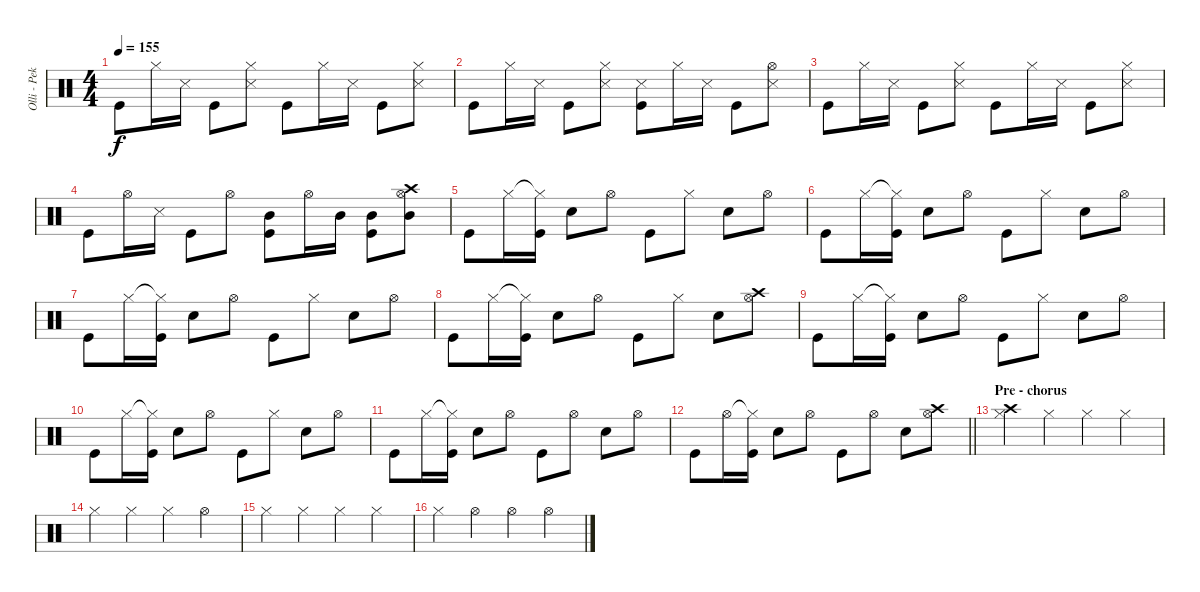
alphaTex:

\track ("Olli - Pekka" "Olli - Pek") {instrument percussion}
\staff {score}
\articulation defaults
\ts (4 4)
\tempo 155
\clef neutral
\ks c "Kick (hit)".8{dy f} "Hi-Hat (closed)".16 "Snare (side stick) 3".16 "Kick (hit)".8
("Hi-Hat (closed)" "Snare (side stick) 3").8 "Kick (hit)".8 "Hi-Hat (closed)".16 "Snare (side stick) 3".16 "Kick (hit)".8 ("Hi-Hat (closed)" "Snare (side stick) 3").8 |
"Kick (hit)".8 "Hi-Hat (closed)".16 "Snare (side stick) 3".16 "Kick (hit)".8 ("Hi-Hat (closed)" "Snare (side stick) 3").8 ("Snare (side stick) 3" "Kick (hit)").8 "Hi-Hat (closed)".16 "Snare (side stick) 3".16 "Kick (hit)".8 ("Hi-Hat (open)" "Snare (side stick) 3").8 |
"Kick (hit)".8 "Hi-Hat (closed)".16 "Snare (side stick) 3".16 "Kick (hit)".8 ("Hi-Hat (closed)" "Snare (side stick) 3").8 "Kick (hit)".8 "Hi-Hat (closed)".16 "Snare (side stick) 3".16 "Kick (hit)".8 ("Hi-Hat (closed)" "Snare (side stick) 3").8 |
"Kick (hit)".8 "Hi-Hat (open)".16 "Snare (side stick) 3".16 "Kick (hit)".8 "Hi-Hat (open)".8 ("Mid Tom (hit)" "Kick (hit)").8 "Hi-Hat (open)".16 "Mid Tom (hit)".16 ("Mid Tom (hit)" "Kick (hit)").8 ("Crash high (hit)" "Hi-Hat (open)" "Mid Tom (hit)").8 |
"Kick (hit)".8 "Hi-Hat (closed)".16 ("Hi-Hat (closed)"{t} "Kick (hit)").16 "Snare (hit) 2".8 "Hi-Hat (open)".8 "Kick (hit)".8 "Hi-Hat (closed)".8 "Snare (hit) 2".8 "Hi-Hat (open)".8 |
"Kick (hit)".8 "Hi-Hat (closed)".16 ("Hi-Hat (closed)"{t} "Kick (hit)").16 "Snare (hit) 2".8 "Hi-Hat (open)".8 "Kick (hit)".8 "Hi-Hat (closed)".8 "Snare (hit) 2".8 "Hi-Hat (open)".8 |
"Kick (hit)".8 "Hi-Hat (closed)".16 ("Hi-Hat (closed)"{t} "Kick (hit)").16 "Snare (hit) 2".8 "Hi-Hat (open)".8 "Kick (hit)".8 "Hi-Hat (closed)".8 "Snare (hit) 2".8 "Hi-Hat (open)".8 |
"Kick (hit)".8 "Hi-Hat (closed)".16 ("Hi-Hat (closed)"{t} "Kick (hit)").16 "Snare (hit) 2".8 "Hi-Hat (open)".8 "Kick (hit)".8 "Hi-Hat (closed)".8 "Snare (hit) 2".8 ("Crash high (hit)" "Hi-Hat (open)").8 |
"Kick (hit)".8 "Hi-Hat (closed)".16 ("Hi-Hat (closed)"{t} "Kick (hit)").16 "Snare (hit) 2".8 "Hi-Hat (open)".8 "Kick (hit)".8 "Hi-Hat (closed)".8 "Snare (hit) 2".8 "Hi-Hat (open)".8 |
"Kick (hit)".8 "Hi-Hat (closed)".16 ("Hi-Hat (closed)"{t} "Kick (hit)").16 "Snare (hit) 2".8 "Hi-Hat (open)".8 "Kick (hit)".8 "Hi-Hat (closed)".8 "Snare (hit) 2".8 "Hi-Hat (open)".8 |
"Kick (hit)".8 "Hi-Hat (closed)".16 ("Hi-Hat (closed)"{t} "Kick (hit)").16 "Snare (hit) 2".8 "Hi-Hat (open)".8 "Kick (hit)".8 "Hi-Hat (open)".8 "Snare (hit) 2".8 "Hi-Hat (open)".8 |
\barLineRight lightlight "Kick (hit)".8 "Hi-Hat (open)".16
("Hi-Hat (closed)"{t} "Kick (hit)").16 "Snare (hit) 2".8 "Hi-Hat (open)".8 "Kick (hit)".8 "Hi-Hat (open)".8 "Snare (hit) 2".8 ("Crash high (hit)" "Hi-Hat (open)").8 |
\section ("" "Pre - chorus")
("Crash high (hit)" "Hi-Hat (closed)").4{volume 11} "Hi-Hat (closed)".4 "Hi-Hat (closed)".4 "Hi-Hat (closed)".4 |
"Hi-Hat (closed)".4 "Hi-Hat (closed)".4 "Hi-Hat (closed)".4 "Hi-Hat (open)".4 |
"Hi-Hat (closed)".4 "Hi-Hat (closed)".4 "Hi-Hat (closed)".4 "Hi-Hat (closed)".4 |
"Hi-Hat (closed)".4 "Hi-Hat (open)".4 "Hi-Hat (open)".4 "Hi-Hat (open)".4
